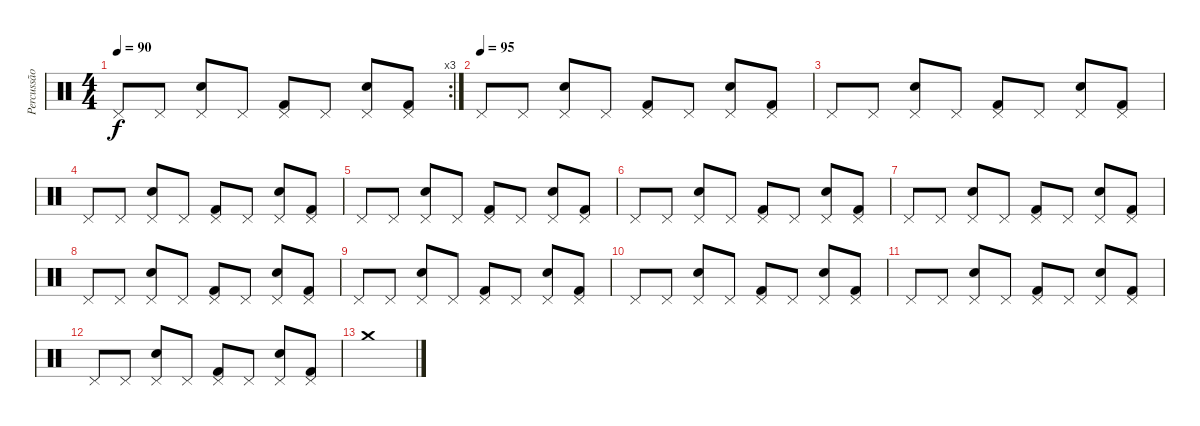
\track ("Percussão" "Percussão") {instrument percussion}
\staff {score}
\articulation defaults
\rc 3
\ts (4 4)
\tempo 90
\clef neutral
\ks c "Pedal Hi-Hat (hit)".8{dy f} "Pedal Hi-Hat (hit)".8
("Pedal Hi-Hat (hit)" "Electric Snare (hit)").8 "Pedal Hi-Hat (hit)".8 ("Pedal Hi-Hat (hit)" "Kick (hit) 2").8 "Pedal Hi-Hat (hit)".8 ("Pedal Hi-Hat (hit)" "Electric Snare (hit)").8 ("Pedal Hi-Hat (hit)" "Kick (hit) 2").8 |
\tempo (95)
"Pedal Hi-Hat (hit)".8 "Pedal Hi-Hat (hit)".8 ("Pedal Hi-Hat (hit)" "Electric Snare (hit)").8 "Pedal Hi-Hat (hit)".8 ("Pedal Hi-Hat (hit)" "Kick (hit) 2").8 "Pedal Hi-Hat (hit)".8 ("Pedal Hi-Hat (hit)" "Electric Snare (hit)").8 ("Pedal Hi-Hat (hit)" "Kick (hit) 2").8 |
"Pedal Hi-Hat (hit)".8 "Pedal Hi-Hat (hit)".8 ("Pedal Hi-Hat (hit)" "Electric Snare (hit)").8 "Pedal Hi-Hat (hit)".8 ("Pedal Hi-Hat (hit)" "Kick (hit) 2").8 "Pedal Hi-Hat (hit)".8 ("Pedal Hi-Hat (hit)" "Electric Snare (hit)").8 ("Pedal Hi-Hat (hit)" "Kick (hit) 2").8 |
"Pedal Hi-Hat (hit)".8 "Pedal Hi-Hat (hit)".8 ("Pedal Hi-Hat (hit)" "Electric Snare (hit)").8 "Pedal Hi-Hat (hit)".8 ("Pedal Hi-Hat (hit)" "Kick (hit) 2").8 "Pedal Hi-Hat (hit)".8 ("Pedal Hi-Hat (hit)" "Electric Snare (hit)").8 ("Pedal Hi-Hat (hit)" "Kick (hit) 2").8 |
"Pedal Hi-Hat (hit)".8 "Pedal Hi-Hat (hit)".8 ("Pedal Hi-Hat (hit)" "Electric Snare (hit)").8 "Pedal Hi-Hat (hit)".8 ("Pedal Hi-Hat (hit)" "Kick (hit) 2").8 "Pedal Hi-Hat (hit)".8 ("Pedal Hi-Hat (hit)" "Electric Snare (hit)").8 ("Pedal Hi-Hat (hit)" "Kick (hit) 2").8 |
"Pedal Hi-Hat (hit)".8 "Pedal Hi-Hat (hit)".8 ("Pedal Hi-Hat (hit)" "Electric Snare (hit)").8 "Pedal Hi-Hat (hit)".8 ("Pedal Hi-Hat (hit)" "Kick (hit) 2").8 "Pedal Hi-Hat (hit)".8 ("Pedal Hi-Hat (hit)" "Electric Snare (hit)").8 ("Pedal Hi-Hat (hit)" "Kick (hit) 2").8 |
"Pedal Hi-Hat (hit)".8 "Pedal Hi-Hat (hit)".8 ("Pedal Hi-Hat (hit)" "Electric Snare (hit)").8 "Pedal Hi-Hat (hit)".8 ("Pedal Hi-Hat (hit)" "Kick (hit) 2").8 "Pedal Hi-Hat (hit)".8 ("Pedal Hi-Hat (hit)" "Electric Snare (hit)").8 ("Pedal Hi-Hat (hit)" "Kick (hit) 2").8 |
"Pedal Hi-Hat (hit)".8 "Pedal Hi-Hat (hit)".8 ("Pedal Hi-Hat (hit)" "Electric Snare (hit)").8 "Pedal Hi-Hat (hit)".8 ("Pedal Hi-Hat (hit)" "Kick (hit) 2").8 "Pedal Hi-Hat (hit)".8 ("Pedal Hi-Hat (hit)" "Electric Snare (hit)").8 ("Pedal Hi-Hat (hit)" "Kick (hit) 2").8 |
"Pedal Hi-Hat (hit)".8 "Pedal Hi-Hat (hit)".8 ("Pedal Hi-Hat (hit)" "Electric Snare (hit)").8 "Pedal Hi-Hat (hit)".8 ("Pedal Hi-Hat (hit)" "Kick (hit) 2").8 "Pedal Hi-Hat (hit)".8 ("Pedal Hi-Hat (hit)" "Electric Snare (hit)").8 ("Pedal Hi-Hat (hit)" "Kick (hit) 2").8 |
"Pedal Hi-Hat (hit)".8 "Pedal Hi-Hat (hit)".8 ("Pedal Hi-Hat (hit)" "Electric Snare (hit)").8 "Pedal Hi-Hat (hit)".8 ("Pedal Hi-Hat (hit)" "Kick (hit) 2").8 "Pedal Hi-Hat (hit)".8 ("Pedal Hi-Hat (hit)" "Electric Snare (hit)").8 ("Pedal Hi-Hat (hit)" "Kick (hit) 2").8 |
"Pedal Hi-Hat (hit)".8 "Pedal Hi-Hat (hit)".8 ("Pedal Hi-Hat (hit)" "Electric Snare (hit)").8 "Pedal Hi-Hat (hit)".8 ("Pedal Hi-Hat (hit)" "Kick (hit) 2").8 "Pedal Hi-Hat (hit)".8 ("Pedal Hi-Hat (hit)" "Electric Snare (hit)").8 ("Pedal Hi-Hat (hit)" "Kick (hit) 2").8 |
"Pedal Hi-Hat (hit)".8 "Pedal Hi-Hat (hit)".8 ("Pedal Hi-Hat (hit)" "Electric Snare (hit)").8 "Pedal Hi-Hat (hit)".8 ("Pedal Hi-Hat (hit)" "Kick (hit) 2").8 "Pedal Hi-Hat (hit)".8 ("Pedal Hi-Hat (hit)" "Electric Snare (hit)").8 ("Pedal Hi-Hat (hit)" "Kick (hit) 2").8 |
"Crash medium (hit)".1
